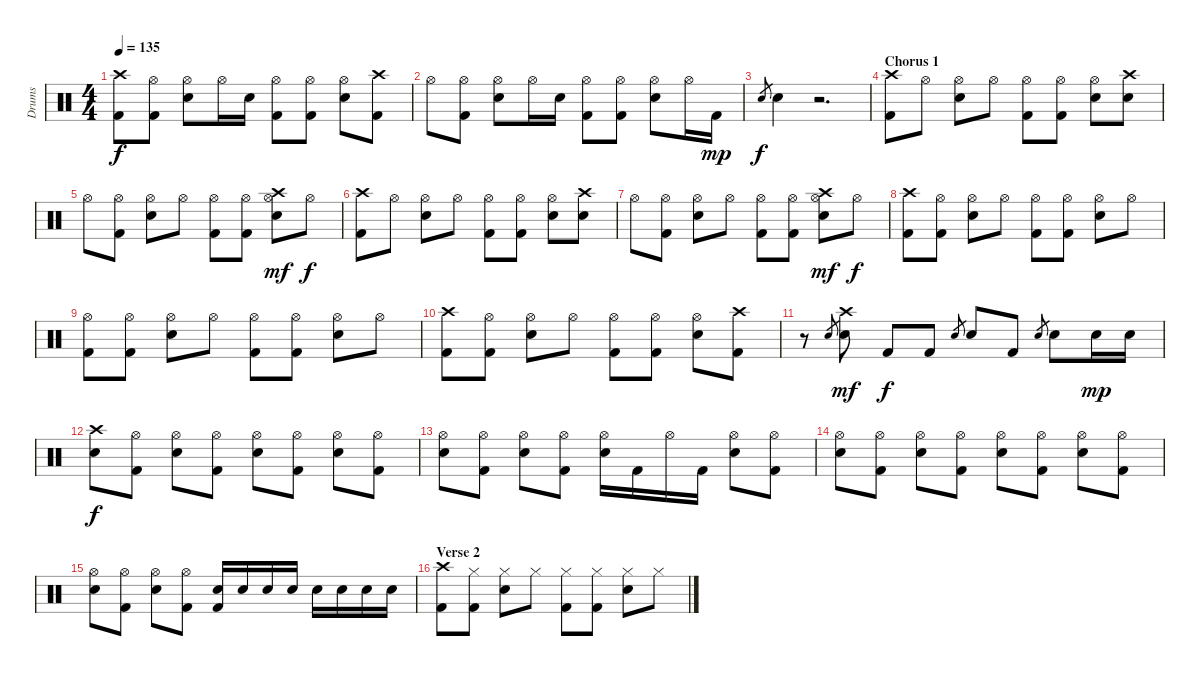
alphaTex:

\track ("Drums" "Drums") {instrument percussion}
\staff {score}
\articulation defaults
\ts (4 4)
\tempo 135
\clef neutral
\ks c
("Crash high (hit)" "Kick (hit) 2").8{dy f} ("Hi-Hat (open)" "Kick (hit) 2").8 ("Hi-Hat (open)" "Snare (hit) 2").8 "Hi-Hat (open)".16 "Snare (hit) 2".16 ("Hi-Hat (open)" "Kick (hit) 2").8 ("Hi-Hat (open)" "Kick (hit) 2").8 ("Hi-Hat (open)" "Snare (hit) 2").8 ("Crash high (hit)" "Kick (hit) 2").8 |
"Hi-Hat (open)".8 ("Hi-Hat (open)" "Kick (hit) 2").8 ("Hi-Hat (open)" "Snare (hit) 2").8 "Hi-Hat (open)".16 "Snare (hit) 2".16 ("Hi-Hat (open)" "Kick (hit) 2").8 ("Hi-Hat (open)" "Kick (hit) 2").8 ("Hi-Hat (open)" "Snare (hit) 2").8 "Hi-Hat (open)".16 "Kick (hit) 2".16{dy mp} |
"Snare (hit) 2".8{gr dy f} "Snare (hit) 2".4 r.2{d} |
\section ("" "Chorus 1")
("Crash high (hit)" "Kick (hit) 2").8 "Hi-Hat (open)".8 ("Hi-Hat (open)" "Snare (hit) 2").8 "Hi-Hat (open)".8 ("Hi-Hat (open)" "Kick (hit) 2").8 ("Hi-Hat (open)" "Kick (hit) 2").8 ("Hi-Hat (open)" "Snare (hit) 2").8 ("Crash high (hit)" "Snare (hit) 2").8 |
"Hi-Hat (open)".8 ("Hi-Hat (open)" "Kick (hit) 2").8 ("Hi-Hat (open)" "Snare (hit) 2").8 "Hi-Hat (open)".8 ("Hi-Hat (open)" "Kick (hit) 2").8 ("Hi-Hat (open)" "Kick (hit) 2").8 ("Crash high (hit)" "Hi-Hat (open)" "Snare (hit) 2").8{dy mf} "Hi-Hat (open)".8{dy f} |
("Crash high (hit)" "Kick (hit) 2").8 "Hi-Hat (open)".8 ("Hi-Hat (open)" "Snare (hit) 2").8 "Hi-Hat (open)".8 ("Hi-Hat (open)" "Kick (hit) 2").8 ("Hi-Hat (open)" "Kick (hit) 2").8 ("Hi-Hat (open)" "Snare (hit) 2").8 ("Crash high (hit)" "Snare (hit) 2").8 |
"Hi-Hat (open)".8 ("Hi-Hat (open)" "Kick (hit) 2").8 ("Hi-Hat (open)" "Snare (hit) 2").8 "Hi-Hat (open)".8 ("Hi-Hat (open)" "Kick (hit) 2").8 ("Hi-Hat (open)" "Kick (hit) 2").8 ("Crash high (hit)" "Hi-Hat (open)" "Snare (hit) 2").8{dy mf} "Hi-Hat (open)".8{dy f} |
("Crash high (hit)" "Kick (hit) 2").8 ("Hi-Hat (open)" "Kick (hit) 2").8 ("Hi-Hat (open)" "Snare (hit) 2").8 "Hi-Hat (open)".8 ("Hi-Hat (open)" "Kick (hit) 2").8 ("Hi-Hat (open)" "Kick (hit) 2").8 ("Hi-Hat (open)" "Snare (hit) 2").8 "Hi-Hat (open)".8 |
("Hi-Hat (open)" "Kick (hit) 2").8 ("Hi-Hat (open)" "Kick (hit) 2").8 ("Hi-Hat (open)" "Snare (hit) 2").8 "Hi-Hat (open)".8 ("Hi-Hat (open)" "Kick (hit) 2").8 ("Hi-Hat (open)" "Kick (hit) 2").8 ("Hi-Hat (open)" "Snare (hit) 2").8 "Hi-Hat (open)".8 |
("Crash high (hit)" "Kick (hit) 2").8 ("Hi-Hat (open)" "Kick (hit) 2").8 ("Hi-Hat (open)" "Snare (hit) 2").8 "Hi-Hat (open)".8 ("Hi-Hat (open)" "Kick (hit) 2").8 ("Hi-Hat (open)" "Kick (hit) 2").8 ("Hi-Hat (open)" "Snare (hit) 2").8 ("Crash high (hit)" "Kick (hit) 2").8 |
r.8 "Snare (hit) 2".8{gr} ("Crash high (hit)" "Snare (hit) 2").8{dy mf} "Kick (hit) 2".8{dy f} "Kick (hit) 2".8 "Snare (hit) 2".8{gr} "Snare (hit) 2".8 "Kick (hit) 2".8 "Snare (hit) 2".8{gr} "Snare (hit) 2".8 "Snare (hit) 2".16{dy mp} "Snare (hit) 2".16 |
("Crash high (hit)" "Snare (hit) 2").8{dy f} ("Hi-Hat (open)" "Kick (hit) 2").8 ("Hi-Hat (open)" "Snare (hit) 2").8 ("Hi-Hat (open)" "Kick (hit) 2").8 ("Hi-Hat (open)" "Snare (hit) 2").8 ("Hi-Hat (open)" "Kick (hit) 2").8 ("Hi-Hat (open)" "Snare (hit) 2").8 ("Hi-Hat (open)" "Kick (hit) 2").8 |
("Hi-Hat (open)" "Snare (hit) 2").8 ("Hi-Hat (open)" "Kick (hit) 2").8 ("Hi-Hat (open)" "Snare (hit) 2").8 ("Hi-Hat (open)" "Kick (hit) 2").8 ("Hi-Hat (open)" "Snare (hit) 2").16 "Kick (hit) 2".16 "Hi-Hat (open)".16 "Kick (hit) 2".16 ("Hi-Hat (open)" "Snare (hit) 2").8 ("Hi-Hat (open)" "Kick (hit) 2").8 |
("Hi-Hat (open)" "Snare (hit) 2").8 ("Hi-Hat (open)" "Kick (hit) 2").8 ("Hi-Hat (open)" "Snare (hit) 2").8 ("Hi-Hat (open)" "Kick (hit) 2").8 ("Hi-Hat (open)" "Snare (hit) 2").8 ("Hi-Hat (open)" "Kick (hit) 2").8 ("Hi-Hat (open)" "Snare (hit) 2").8 ("Hi-Hat (open)" "Kick (hit) 2").8 |
("Hi-Hat (open)" "Snare (hit) 2").8 ("Hi-Hat (open)" "Kick (hit) 2").8 ("Hi-Hat (open)" "Snare (hit) 2").8 ("Hi-Hat (open)" "Kick (hit) 2").8 ("Snare (hit) 2" "Kick (hit) 2").16 "Snare (hit) 2".16 "Snare (hit) 2".16 "Snare (hit) 2".16 "Snare (hit) 2".16 "Snare (hit) 2".16 "Snare (hit) 2".16 "Snare (hit) 2".16 |
\section ("" "Verse 2")
("Crash high (hit)" "Kick (hit) 2").8 ("Hi-Hat (closed)" "Kick (hit) 2").8 ("Hi-Hat (closed)" "Snare (hit) 2").8 "Hi-Hat (closed)".8 ("Hi-Hat (closed)" "Kick (hit) 2").8 ("Hi-Hat (closed)" "Kick (hit) 2").8 ("Hi-Hat (closed)" "Snare (hit) 2").8 "Hi-Hat (closed)".8
